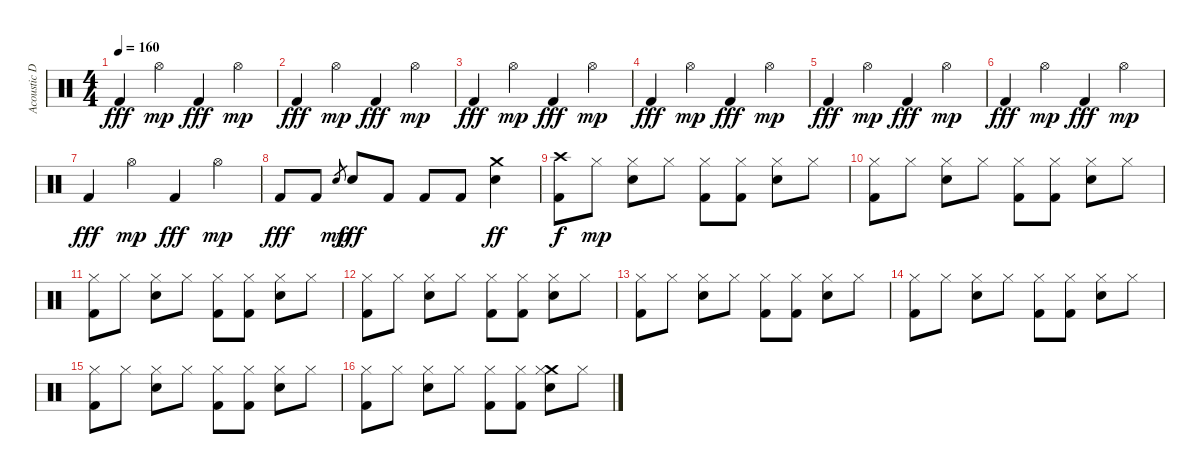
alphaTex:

\track ("Acoustic Drums" "Acoustic D") {instrument percussion}
\staff {score}
\articulation defaults
\ts (4 4)
\tempo 160
\clef neutral
\ks c "Kick (hit) 2".4{dy fff} "Hi-Hat (open)".4{dy mp} "Kick (hit) 2".4{dy fff} "Hi-Hat (open)".4{dy mp}
|
"Kick (hit) 2".4{dy fff} "Hi-Hat (open)".4{dy mp} "Kick (hit) 2".4{dy fff} "Hi-Hat (open)".4{dy mp} |
"Kick (hit) 2".4{dy fff} "Hi-Hat (open)".4{dy mp} "Kick (hit) 2".4{dy fff} "Hi-Hat (open)".4{dy mp} |
"Kick (hit) 2".4{dy fff} "Hi-Hat (open)".4{dy mp} "Kick (hit) 2".4{dy fff} "Hi-Hat (open)".4{dy mp} |
"Kick (hit) 2".4{dy fff} "Hi-Hat (open)".4{dy mp} "Kick (hit) 2".4{dy fff} "Hi-Hat (open)".4{dy mp} |
"Kick (hit) 2".4{dy fff} "Hi-Hat (open)".4{dy mp} "Kick (hit) 2".4{dy fff} "Hi-Hat (open)".4{dy mp} |
"Kick (hit) 2".4{dy fff} "Hi-Hat (open)".4{dy mp} "Kick (hit) 2".4{dy fff} "Hi-Hat (open)".4{dy mp} |
"Kick (hit) 2".8{dy fff volume 13} "Kick (hit) 2".8 "Snare (hit) 2".8{gr dy mp} "Snare (hit) 2".8{dy fff} "Kick (hit) 2".8 "Kick (hit) 2".8 "Kick (hit) 2".8 ("Crash medium (hit)" "Snare (hit) 2").4{dy ff} |
("Crash high (hit)" "Kick (hit) 2").8{dy f volume 13} "Hi-Hat (closed)".8{dy mp} ("Hi-Hat (closed)" "Snare (hit) 2").8 "Hi-Hat (closed)".8 ("Hi-Hat (closed)" "Kick (hit) 2").8 ("Hi-Hat (closed)" "Kick (hit) 2").8 ("Hi-Hat (closed)" "Snare (hit) 2").8 "Hi-Hat (closed)".8 |
("Hi-Hat (closed)" "Kick (hit) 2").8 "Hi-Hat (closed)".8 ("Hi-Hat (closed)" "Snare (hit) 2").8 "Hi-Hat (closed)".8 ("Hi-Hat (closed)" "Kick (hit) 2").8 ("Hi-Hat (closed)" "Kick (hit) 2").8 ("Hi-Hat (closed)" "Snare (hit) 2").8 "Hi-Hat (closed)".8 |
("Hi-Hat (closed)" "Kick (hit) 2").8 "Hi-Hat (closed)".8 ("Hi-Hat (closed)" "Snare (hit) 2").8 "Hi-Hat (closed)".8 ("Hi-Hat (closed)" "Kick (hit) 2").8 ("Hi-Hat (closed)" "Kick (hit) 2").8 ("Hi-Hat (closed)" "Snare (hit) 2").8 "Hi-Hat (closed)".8 |
("Hi-Hat (closed)" "Kick (hit) 2").8 "Hi-Hat (closed)".8 ("Hi-Hat (closed)" "Snare (hit) 2").8 "Hi-Hat (closed)".8 ("Hi-Hat (closed)" "Kick (hit) 2").8 ("Hi-Hat (closed)" "Kick (hit) 2").8 ("Hi-Hat (closed)" "Snare (hit) 2").8 "Hi-Hat (closed)".8 |
("Hi-Hat (closed)" "Kick (hit) 2").8 "Hi-Hat (closed)".8 ("Hi-Hat (closed)" "Snare (hit) 2").8 "Hi-Hat (closed)".8 ("Hi-Hat (closed)" "Kick (hit) 2").8 ("Hi-Hat (closed)" "Kick (hit) 2").8 ("Hi-Hat (closed)" "Snare (hit) 2").8 "Hi-Hat (closed)".8 |
("Hi-Hat (closed)" "Kick (hit) 2").8 "Hi-Hat (closed)".8 ("Hi-Hat (closed)" "Snare (hit) 2").8 "Hi-Hat (closed)".8 ("Hi-Hat (closed)" "Kick (hit) 2").8 ("Hi-Hat (closed)" "Kick (hit) 2").8 ("Hi-Hat (closed)" "Snare (hit) 2").8 "Hi-Hat (closed)".8 |
("Hi-Hat (closed)" "Kick (hit) 2").8 "Hi-Hat (closed)".8 ("Hi-Hat (closed)" "Snare (hit) 2").8 "Hi-Hat (closed)".8 ("Hi-Hat (closed)" "Kick (hit) 2").8 ("Hi-Hat (closed)" "Kick (hit) 2").8 ("Hi-Hat (closed)" "Snare (hit) 2").8 "Hi-Hat (closed)".8 |
("Hi-Hat (closed)" "Kick (hit) 2").8 "Hi-Hat (closed)".8 ("Hi-Hat (closed)" "Snare (hit) 2").8 "Hi-Hat (closed)".8 ("Hi-Hat (closed)" "Kick (hit) 2").8 ("Hi-Hat (closed)" "Kick (hit) 2").8 ("Crash medium (hit)" "Hi-Hat (closed)" "Snare (hit) 2").8 "Hi-Hat (closed)".8
